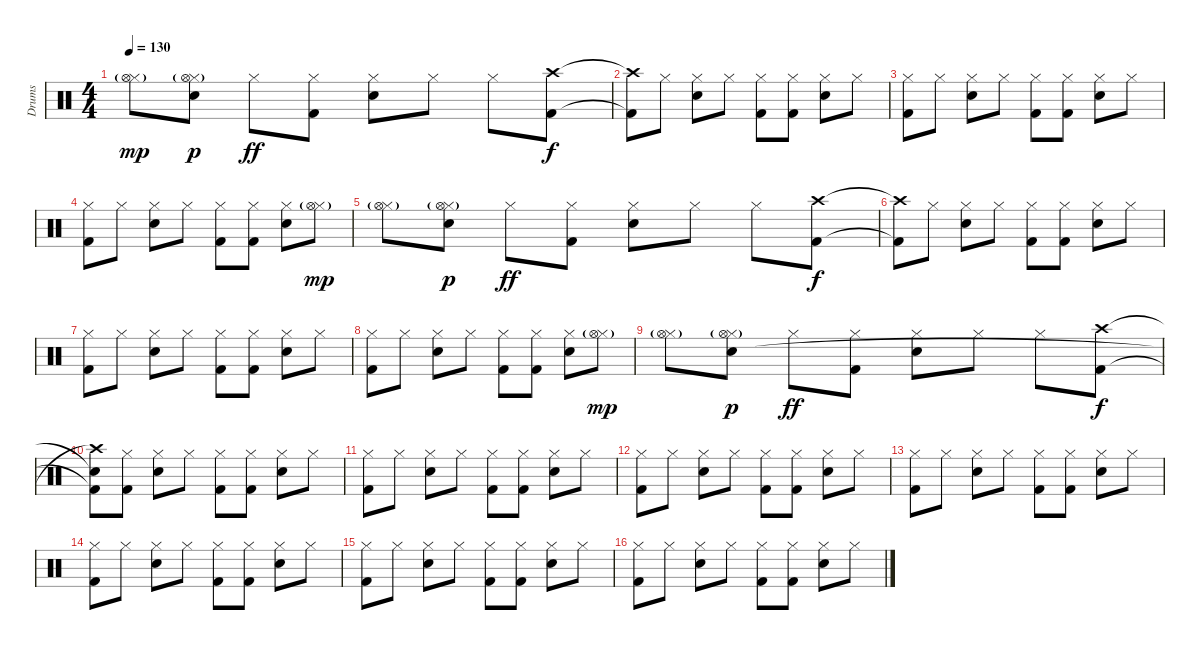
\track ("Drums" "Drums") {instrument percussion}
\staff {score}
\articulation defaults
\ts (4 4)
\tempo 130
\clef neutral
\ks c
("Hi-Hat (closed)" "Hi-Hat (open)"{g}).8{dy mp} ("Hi-Hat (closed)" "Hi-Hat (open)"{g} "Electric Snare (hit)").8{dy p} "Hi-Hat (closed)".8{dy ff} ("Hi-Hat (closed)" "Kick (hit) 2").8 ("Hi-Hat (closed)" "Electric Snare (hit)").8 "Hi-Hat (closed)".8 "Hi-Hat (closed)".8 ("Crash high (hit)" "Kick (hit) 2").8{dy f} |
("Crash high (hit)"{t} "Kick (hit) 2"{t}).8 "Hi-Hat (closed)".8 ("Hi-Hat (closed)" "Electric Snare (hit)").8 "Hi-Hat (closed)".8 ("Hi-Hat (closed)" "Kick (hit) 2").8 ("Hi-Hat (closed)" "Kick (hit) 2").8 ("Hi-Hat (closed)" "Electric Snare (hit)").8 "Hi-Hat (closed)".8 |
("Hi-Hat (closed)" "Kick (hit) 2").8 "Hi-Hat (closed)".8 ("Hi-Hat (closed)" "Electric Snare (hit)").8 "Hi-Hat (closed)".8 ("Hi-Hat (closed)" "Kick (hit) 2").8 ("Hi-Hat (closed)" "Kick (hit) 2").8 ("Hi-Hat (closed)" "Electric Snare (hit)").8 "Hi-Hat (closed)".8 |
("Hi-Hat (closed)" "Kick (hit) 2").8 "Hi-Hat (closed)".8 ("Hi-Hat (closed)" "Electric Snare (hit)").8 "Hi-Hat (closed)".8 ("Hi-Hat (closed)" "Kick (hit) 2").8 ("Hi-Hat (closed)" "Kick (hit) 2").8 ("Hi-Hat (closed)" "Electric Snare (hit)").8 ("Hi-Hat (closed)" "Hi-Hat (open)"{g}).8{dy mp} |
("Hi-Hat (closed)" "Hi-Hat (open)"{g}).8 ("Hi-Hat (closed)" "Hi-Hat (open)"{g} "Electric Snare (hit)").8{dy p} "Hi-Hat (closed)".8{dy ff} ("Hi-Hat (closed)" "Kick (hit) 2").8 ("Hi-Hat (closed)" "Electric Snare (hit)").8 "Hi-Hat (closed)".8 "Hi-Hat (closed)".8 ("Crash high (hit)" "Kick (hit) 2").8{dy f} |
("Crash high (hit)"{t} "Kick (hit) 2"{t}).8 "Hi-Hat (closed)".8 ("Hi-Hat (closed)" "Electric Snare (hit)").8 "Hi-Hat (closed)".8 ("Hi-Hat (closed)" "Kick (hit) 2").8 ("Hi-Hat (closed)" "Kick (hit) 2").8 ("Hi-Hat (closed)" "Electric Snare (hit)").8 "Hi-Hat (closed)".8 |
("Hi-Hat (closed)" "Kick (hit) 2").8 "Hi-Hat (closed)".8 ("Hi-Hat (closed)" "Electric Snare (hit)").8 "Hi-Hat (closed)".8 ("Hi-Hat (closed)" "Kick (hit) 2").8 ("Hi-Hat (closed)" "Kick (hit) 2").8 ("Hi-Hat (closed)" "Electric Snare (hit)").8 "Hi-Hat (closed)".8 |
("Hi-Hat (closed)" "Kick (hit) 2").8 "Hi-Hat (closed)".8 ("Hi-Hat (closed)" "Electric Snare (hit)").8 "Hi-Hat (closed)".8 ("Hi-Hat (closed)" "Kick (hit) 2").8 ("Hi-Hat (closed)" "Kick (hit) 2").8 ("Hi-Hat (closed)" "Electric Snare (hit)").8 ("Hi-Hat (closed)" "Hi-Hat (open)"{g}).8{dy mp} |
("Hi-Hat (closed)" "Hi-Hat (open)"{g}).8 ("Hi-Hat (closed)" "Hi-Hat (open)"{g} "Electric Snare (hit)").8{dy p} "Hi-Hat (closed)".8{dy ff} ("Hi-Hat (closed)" "Kick (hit) 2").8 ("Hi-Hat (closed)" "Electric Snare (hit)").8 "Hi-Hat (closed)".8 "Hi-Hat (closed)".8 ("Crash high (hit)" "Kick (hit) 2").8{dy f} |
("Snare (hit)"{t} "Crash high (hit)"{t} "Kick (hit) 2"{t}).8 ("Hi-Hat (closed)" "Kick (hit) 2").8 ("Hi-Hat (closed)" "Electric Snare (hit)").8 "Hi-Hat (closed)".8 ("Hi-Hat (closed)" "Kick (hit) 2").8 ("Hi-Hat (closed)" "Kick (hit) 2").8 ("Hi-Hat (closed)" "Electric Snare (hit)").8 "Hi-Hat (closed)".8 |
("Hi-Hat (closed)" "Kick (hit) 2").8 "Hi-Hat (closed)".8 ("Hi-Hat (closed)" "Electric Snare (hit)").8 "Hi-Hat (closed)".8 ("Hi-Hat (closed)" "Kick (hit) 2").8 ("Hi-Hat (closed)" "Kick (hit) 2").8 ("Hi-Hat (closed)" "Electric Snare (hit)").8 "Hi-Hat (closed)".8 |
("Hi-Hat (closed)" "Kick (hit) 2").8 "Hi-Hat (closed)".8 ("Hi-Hat (closed)" "Electric Snare (hit)").8 "Hi-Hat (closed)".8 ("Hi-Hat (closed)" "Kick (hit) 2").8 ("Hi-Hat (closed)" "Kick (hit) 2").8 ("Hi-Hat (closed)" "Electric Snare (hit)").8 "Hi-Hat (closed)".8 |
("Hi-Hat (closed)" "Kick (hit) 2").8 "Hi-Hat (closed)".8 ("Hi-Hat (closed)" "Electric Snare (hit)").8 "Hi-Hat (closed)".8 ("Hi-Hat (closed)" "Kick (hit) 2").8 ("Hi-Hat (closed)" "Kick (hit) 2").8 ("Hi-Hat (closed)" "Electric Snare (hit)").8 "Hi-Hat (closed)".8 |
("Hi-Hat (closed)" "Kick (hit) 2").8 "Hi-Hat (closed)".8 ("Hi-Hat (closed)" "Electric Snare (hit)").8 "Hi-Hat (closed)".8 ("Hi-Hat (closed)" "Kick (hit) 2").8 ("Hi-Hat (closed)" "Kick (hit) 2").8 ("Hi-Hat (closed)" "Electric Snare (hit)").8 "Hi-Hat (closed)".8 |
("Hi-Hat (closed)" "Kick (hit) 2").8 "Hi-Hat (closed)".8 ("Hi-Hat (closed)" "Electric Snare (hit)").8 "Hi-Hat (closed)".8 ("Hi-Hat (closed)" "Kick (hit) 2").8 ("Hi-Hat (closed)" "Kick (hit) 2").8 ("Hi-Hat (closed)" "Electric Snare (hit)").8 "Hi-Hat (closed)".8 |
("Hi-Hat (closed)" "Kick (hit) 2").8 "Hi-Hat (closed)".8 ("Hi-Hat (closed)" "Electric Snare (hit)").8 "Hi-Hat (closed)".8 ("Hi-Hat (closed)" "Kick (hit) 2").8 ("Hi-Hat (closed)" "Kick (hit) 2").8 ("Hi-Hat (closed)" "Electric Snare (hit)").8 "Hi-Hat (closed)".8
